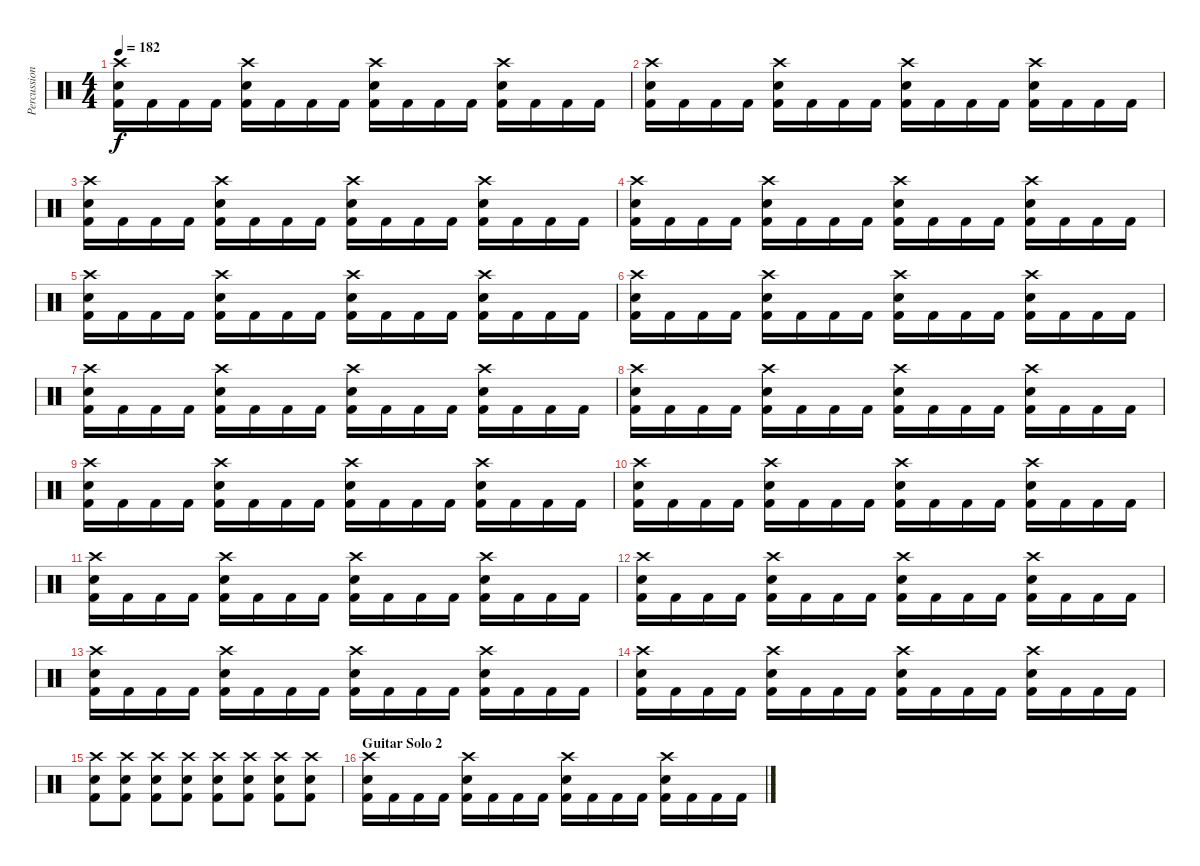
\track ("Percussion" "Percussion") {instrument percussion}
\staff {score}
\articulation defaults
\ts (4 4)
\tempo 182
\clef neutral
\ks c
("Crash high (hit)" "Snare (hit) 2" "Kick (hit) 2").16{dy f} "Kick (hit) 2".16 "Kick (hit) 2".16 "Kick (hit) 2".16 ("Crash high (hit)" "Snare (hit) 2" "Kick (hit) 2").16 "Kick (hit) 2".16 "Kick (hit) 2".16 "Kick (hit) 2".16 ("Crash high (hit)" "Snare (hit) 2" "Kick (hit) 2").16 "Kick (hit) 2".16 "Kick (hit) 2".16 "Kick (hit) 2".16 ("Crash high (hit)" "Snare (hit) 2" "Kick (hit) 2").16 "Kick (hit) 2".16 "Kick (hit) 2".16 "Kick (hit) 2".16 |
("Crash high (hit)" "Snare (hit) 2" "Kick (hit) 2").16 "Kick (hit) 2".16 "Kick (hit) 2".16 "Kick (hit) 2".16 ("Crash high (hit)" "Snare (hit) 2" "Kick (hit) 2").16 "Kick (hit) 2".16 "Kick (hit) 2".16 "Kick (hit) 2".16 ("Crash high (hit)" "Snare (hit) 2" "Kick (hit) 2").16 "Kick (hit) 2".16 "Kick (hit) 2".16 "Kick (hit) 2".16 ("Crash high (hit)" "Snare (hit) 2" "Kick (hit) 2").16 "Kick (hit) 2".16 "Kick (hit) 2".16 "Kick (hit) 2".16 |
("Crash high (hit)" "Snare (hit) 2" "Kick (hit) 2").16 "Kick (hit) 2".16 "Kick (hit) 2".16 "Kick (hit) 2".16 ("Crash high (hit)" "Snare (hit) 2" "Kick (hit) 2").16 "Kick (hit) 2".16 "Kick (hit) 2".16 "Kick (hit) 2".16 ("Crash high (hit)" "Snare (hit) 2" "Kick (hit) 2").16 "Kick (hit) 2".16 "Kick (hit) 2".16 "Kick (hit) 2".16 ("Crash high (hit)" "Snare (hit) 2" "Kick (hit) 2").16 "Kick (hit) 2".16 "Kick (hit) 2".16 "Kick (hit) 2".16 |
("Crash high (hit)" "Snare (hit) 2" "Kick (hit) 2").16 "Kick (hit) 2".16 "Kick (hit) 2".16 "Kick (hit) 2".16 ("Crash high (hit)" "Snare (hit) 2" "Kick (hit) 2").16 "Kick (hit) 2".16 "Kick (hit) 2".16 "Kick (hit) 2".16 ("Crash high (hit)" "Snare (hit) 2" "Kick (hit) 2").16 "Kick (hit) 2".16 "Kick (hit) 2".16 "Kick (hit) 2".16 ("Crash high (hit)" "Snare (hit) 2" "Kick (hit) 2").16 "Kick (hit) 2".16 "Kick (hit) 2".16 "Kick (hit) 2".16 |
("Crash high (hit)" "Snare (hit) 2" "Kick (hit) 2").16 "Kick (hit) 2".16 "Kick (hit) 2".16 "Kick (hit) 2".16 ("Crash high (hit)" "Snare (hit) 2" "Kick (hit) 2").16 "Kick (hit) 2".16 "Kick (hit) 2".16 "Kick (hit) 2".16 ("Crash high (hit)" "Snare (hit) 2" "Kick (hit) 2").16 "Kick (hit) 2".16 "Kick (hit) 2".16 "Kick (hit) 2".16 ("Crash high (hit)" "Snare (hit) 2" "Kick (hit) 2").16 "Kick (hit) 2".16 "Kick (hit) 2".16 "Kick (hit) 2".16 |
("Crash high (hit)" "Snare (hit) 2" "Kick (hit) 2").16 "Kick (hit) 2".16 "Kick (hit) 2".16 "Kick (hit) 2".16 ("Crash high (hit)" "Snare (hit) 2" "Kick (hit) 2").16 "Kick (hit) 2".16 "Kick (hit) 2".16 "Kick (hit) 2".16 ("Crash high (hit)" "Snare (hit) 2" "Kick (hit) 2").16 "Kick (hit) 2".16 "Kick (hit) 2".16 "Kick (hit) 2".16 ("Crash high (hit)" "Snare (hit) 2" "Kick (hit) 2").16 "Kick (hit) 2".16 "Kick (hit) 2".16 "Kick (hit) 2".16 |
("Crash high (hit)" "Snare (hit) 2" "Kick (hit) 2").16 "Kick (hit) 2".16 "Kick (hit) 2".16 "Kick (hit) 2".16 ("Crash high (hit)" "Snare (hit) 2" "Kick (hit) 2").16 "Kick (hit) 2".16 "Kick (hit) 2".16 "Kick (hit) 2".16 ("Crash high (hit)" "Snare (hit) 2" "Kick (hit) 2").16 "Kick (hit) 2".16 "Kick (hit) 2".16 "Kick (hit) 2".16 ("Crash high (hit)" "Snare (hit) 2" "Kick (hit) 2").16 "Kick (hit) 2".16 "Kick (hit) 2".16 "Kick (hit) 2".16 |
("Crash high (hit)" "Snare (hit) 2" "Kick (hit) 2").16 "Kick (hit) 2".16 "Kick (hit) 2".16 "Kick (hit) 2".16 ("Crash high (hit)" "Snare (hit) 2" "Kick (hit) 2").16 "Kick (hit) 2".16 "Kick (hit) 2".16 "Kick (hit) 2".16 ("Crash high (hit)" "Snare (hit) 2" "Kick (hit) 2").16 "Kick (hit) 2".16 "Kick (hit) 2".16 "Kick (hit) 2".16 ("Crash high (hit)" "Snare (hit) 2" "Kick (hit) 2").16 "Kick (hit) 2".16 "Kick (hit) 2".16 "Kick (hit) 2".16 |
("Crash high (hit)" "Snare (hit) 2" "Kick (hit) 2").16 "Kick (hit) 2".16 "Kick (hit) 2".16 "Kick (hit) 2".16 ("Crash high (hit)" "Snare (hit) 2" "Kick (hit) 2").16 "Kick (hit) 2".16 "Kick (hit) 2".16 "Kick (hit) 2".16 ("Crash high (hit)" "Snare (hit) 2" "Kick (hit) 2").16 "Kick (hit) 2".16 "Kick (hit) 2".16 "Kick (hit) 2".16 ("Crash high (hit)" "Snare (hit) 2" "Kick (hit) 2").16 "Kick (hit) 2".16 "Kick (hit) 2".16 "Kick (hit) 2".16 |
("Crash high (hit)" "Snare (hit) 2" "Kick (hit) 2").16 "Kick (hit) 2".16 "Kick (hit) 2".16 "Kick (hit) 2".16 ("Crash high (hit)" "Snare (hit) 2" "Kick (hit) 2").16 "Kick (hit) 2".16 "Kick (hit) 2".16 "Kick (hit) 2".16 ("Crash high (hit)" "Snare (hit) 2" "Kick (hit) 2").16 "Kick (hit) 2".16 "Kick (hit) 2".16 "Kick (hit) 2".16 ("Crash high (hit)" "Snare (hit) 2" "Kick (hit) 2").16 "Kick (hit) 2".16 "Kick (hit) 2".16 "Kick (hit) 2".16 |
("Crash high (hit)" "Snare (hit) 2" "Kick (hit) 2").16 "Kick (hit) 2".16 "Kick (hit) 2".16 "Kick (hit) 2".16 ("Crash high (hit)" "Snare (hit) 2" "Kick (hit) 2").16 "Kick (hit) 2".16 "Kick (hit) 2".16 "Kick (hit) 2".16 ("Crash high (hit)" "Snare (hit) 2" "Kick (hit) 2").16 "Kick (hit) 2".16 "Kick (hit) 2".16 "Kick (hit) 2".16 ("Crash high (hit)" "Snare (hit) 2" "Kick (hit) 2").16 "Kick (hit) 2".16 "Kick (hit) 2".16 "Kick (hit) 2".16 |
("Crash high (hit)" "Snare (hit) 2" "Kick (hit) 2").16 "Kick (hit) 2".16 "Kick (hit) 2".16 "Kick (hit) 2".16 ("Crash high (hit)" "Snare (hit) 2" "Kick (hit) 2").16 "Kick (hit) 2".16 "Kick (hit) 2".16 "Kick (hit) 2".16 ("Crash high (hit)" "Snare (hit) 2" "Kick (hit) 2").16 "Kick (hit) 2".16 "Kick (hit) 2".16 "Kick (hit) 2".16 ("Crash high (hit)" "Snare (hit) 2" "Kick (hit) 2").16 "Kick (hit) 2".16 "Kick (hit) 2".16 "Kick (hit) 2".16 |
("Crash high (hit)" "Snare (hit) 2" "Kick (hit) 2").16 "Kick (hit) 2".16 "Kick (hit) 2".16 "Kick (hit) 2".16 ("Crash high (hit)" "Snare (hit) 2" "Kick (hit) 2").16 "Kick (hit) 2".16 "Kick (hit) 2".16 "Kick (hit) 2".16 ("Crash high (hit)" "Snare (hit) 2" "Kick (hit) 2").16 "Kick (hit) 2".16 "Kick (hit) 2".16 "Kick (hit) 2".16 ("Crash high (hit)" "Snare (hit) 2" "Kick (hit) 2").16 "Kick (hit) 2".16 "Kick (hit) 2".16 "Kick (hit) 2".16 |
("Crash high (hit)" "Snare (hit) 2" "Kick (hit) 2").16 "Kick (hit) 2".16 "Kick (hit) 2".16 "Kick (hit) 2".16 ("Crash high (hit)" "Snare (hit) 2" "Kick (hit) 2").16 "Kick (hit) 2".16 "Kick (hit) 2".16 "Kick (hit) 2".16 ("Crash high (hit)" "Snare (hit) 2" "Kick (hit) 2").16 "Kick (hit) 2".16 "Kick (hit) 2".16 "Kick (hit) 2".16 ("Crash high (hit)" "Snare (hit) 2" "Kick (hit) 2").16 "Kick (hit) 2".16 "Kick (hit) 2".16 "Kick (hit) 2".16 |
("Crash high (hit)" "Snare (hit) 2" "Kick (hit) 2").8 ("Crash high (hit)" "Snare (hit) 2" "Kick (hit) 2").8 ("Crash high (hit)" "Snare (hit) 2" "Kick (hit) 2").8 ("Crash high (hit)" "Snare (hit) 2" "Kick (hit) 2").8 ("Crash high (hit)" "Snare (hit) 2" "Kick (hit) 2").8 ("Crash high (hit)" "Snare (hit) 2" "Kick (hit) 2").8 ("Crash high (hit)" "Snare (hit) 2" "Kick (hit) 2").8 ("Crash high (hit)" "Snare (hit) 2" "Kick (hit) 2").8 |
\section ("" "Guitar Solo 2")
("Crash high (hit)" "Snare (hit) 2" "Kick (hit) 2").16 "Kick (hit) 2".16 "Kick (hit) 2".16 "Kick (hit) 2".16 ("Crash high (hit)" "Snare (hit) 2" "Kick (hit) 2").16 "Kick (hit) 2".16 "Kick (hit) 2".16 "Kick (hit) 2".16 ("Crash high (hit)" "Snare (hit) 2" "Kick (hit) 2").16 "Kick (hit) 2".16 "Kick (hit) 2".16 "Kick (hit) 2".16 ("Crash high (hit)" "Snare (hit) 2" "Kick (hit) 2").16 "Kick (hit) 2".16 "Kick (hit) 2".16 "Kick (hit) 2".16
